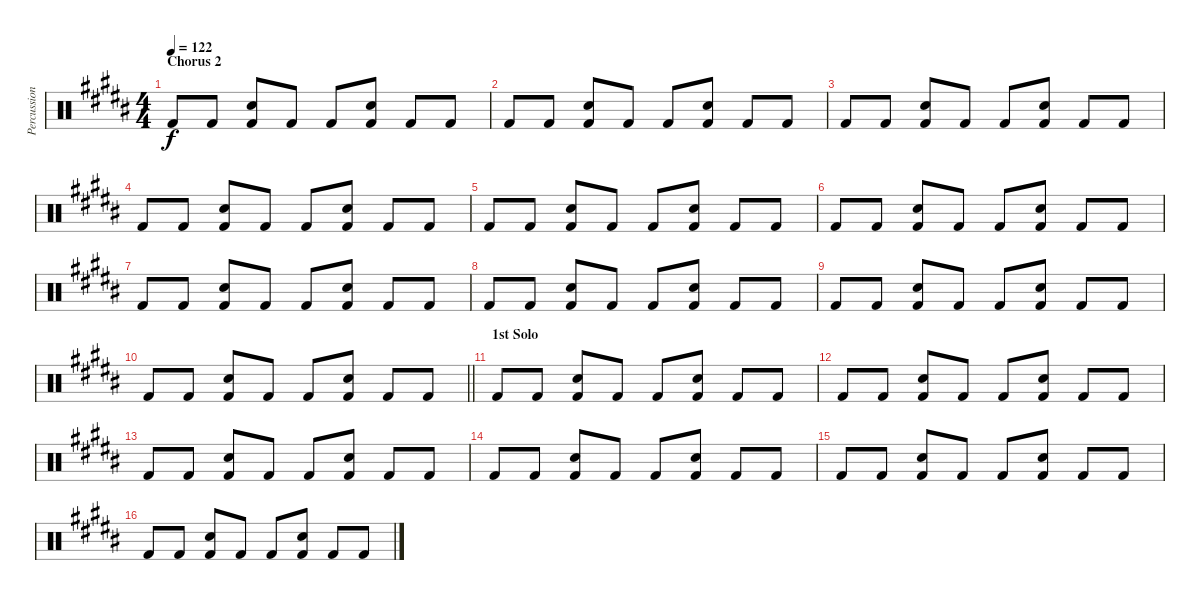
\track ("Percussion" "Percussion") {instrument percussion}
\staff {score}
\articulation defaults
\ts (4 4)
\section ("" "Chorus 2")
\tempo 122
\clef neutral
\ks b "Kick (hit) 2".8{dy f} "Kick (hit) 2".8
("Kick (hit) 2" "Snare (hit) 2").8 "Kick (hit) 2".8 "Kick (hit) 2".8 ("Kick (hit) 2" "Snare (hit) 2").8 "Kick (hit) 2".8 "Kick (hit) 2".8 |
"Kick (hit) 2".8 "Kick (hit) 2".8 ("Kick (hit) 2" "Snare (hit) 2").8 "Kick (hit) 2".8 "Kick (hit) 2".8 ("Kick (hit) 2" "Snare (hit) 2").8 "Kick (hit) 2".8 "Kick (hit) 2".8 |
"Kick (hit) 2".8 "Kick (hit) 2".8 ("Kick (hit) 2" "Snare (hit) 2").8 "Kick (hit) 2".8 "Kick (hit) 2".8 ("Kick (hit) 2" "Snare (hit) 2").8 "Kick (hit) 2".8 "Kick (hit) 2".8 |
"Kick (hit) 2".8 "Kick (hit) 2".8 ("Kick (hit) 2" "Snare (hit) 2").8 "Kick (hit) 2".8 "Kick (hit) 2".8 ("Kick (hit) 2" "Snare (hit) 2").8 "Kick (hit) 2".8 "Kick (hit) 2".8 |
"Kick (hit) 2".8 "Kick (hit) 2".8 ("Kick (hit) 2" "Snare (hit) 2").8 "Kick (hit) 2".8 "Kick (hit) 2".8 ("Kick (hit) 2" "Snare (hit) 2").8 "Kick (hit) 2".8 "Kick (hit) 2".8 |
"Kick (hit) 2".8 "Kick (hit) 2".8 ("Kick (hit) 2" "Snare (hit) 2").8 "Kick (hit) 2".8 "Kick (hit) 2".8 ("Kick (hit) 2" "Snare (hit) 2").8 "Kick (hit) 2".8 "Kick (hit) 2".8 |
"Kick (hit) 2".8 "Kick (hit) 2".8 ("Kick (hit) 2" "Snare (hit) 2").8 "Kick (hit) 2".8 "Kick (hit) 2".8 ("Kick (hit) 2" "Snare (hit) 2").8 "Kick (hit) 2".8 "Kick (hit) 2".8 |
"Kick (hit) 2".8 "Kick (hit) 2".8 ("Kick (hit) 2" "Snare (hit) 2").8 "Kick (hit) 2".8 "Kick (hit) 2".8 ("Kick (hit) 2" "Snare (hit) 2").8 "Kick (hit) 2".8 "Kick (hit) 2".8 |
"Kick (hit) 2".8 "Kick (hit) 2".8 ("Kick (hit) 2" "Snare (hit) 2").8 "Kick (hit) 2".8 "Kick (hit) 2".8 ("Kick (hit) 2" "Snare (hit) 2").8 "Kick (hit) 2".8 "Kick (hit) 2".8 |
\barLineRight lightlight "Kick (hit) 2".8 "Kick (hit) 2".8
("Kick (hit) 2" "Snare (hit) 2").8 "Kick (hit) 2".8 "Kick (hit) 2".8 ("Kick (hit) 2" "Snare (hit) 2").8 "Kick (hit) 2".8 "Kick (hit) 2".8 |
\section ("" "1st Solo")
"Kick (hit) 2".8 "Kick (hit) 2".8 ("Kick (hit) 2" "Snare (hit) 2").8 "Kick (hit) 2".8 "Kick (hit) 2".8 ("Kick (hit) 2" "Snare (hit) 2").8 "Kick (hit) 2".8 "Kick (hit) 2".8 |
"Kick (hit) 2".8 "Kick (hit) 2".8 ("Kick (hit) 2" "Snare (hit) 2").8 "Kick (hit) 2".8 "Kick (hit) 2".8 ("Kick (hit) 2" "Snare (hit) 2").8 "Kick (hit) 2".8 "Kick (hit) 2".8 |
"Kick (hit) 2".8 "Kick (hit) 2".8 ("Kick (hit) 2" "Snare (hit) 2").8 "Kick (hit) 2".8 "Kick (hit) 2".8 ("Kick (hit) 2" "Snare (hit) 2").8 "Kick (hit) 2".8 "Kick (hit) 2".8 |
"Kick (hit) 2".8 "Kick (hit) 2".8 ("Kick (hit) 2" "Snare (hit) 2").8 "Kick (hit) 2".8 "Kick (hit) 2".8 ("Kick (hit) 2" "Snare (hit) 2").8 "Kick (hit) 2".8 "Kick (hit) 2".8 |
"Kick (hit) 2".8 "Kick (hit) 2".8 ("Kick (hit) 2" "Snare (hit) 2").8 "Kick (hit) 2".8 "Kick (hit) 2".8 ("Kick (hit) 2" "Snare (hit) 2").8 "Kick (hit) 2".8 "Kick (hit) 2".8 |
"Kick (hit) 2".8 "Kick (hit) 2".8 ("Kick (hit) 2" "Snare (hit) 2").8 "Kick (hit) 2".8 "Kick (hit) 2".8 ("Kick (hit) 2" "Snare (hit) 2").8 "Kick (hit) 2".8 "Kick (hit) 2".8
